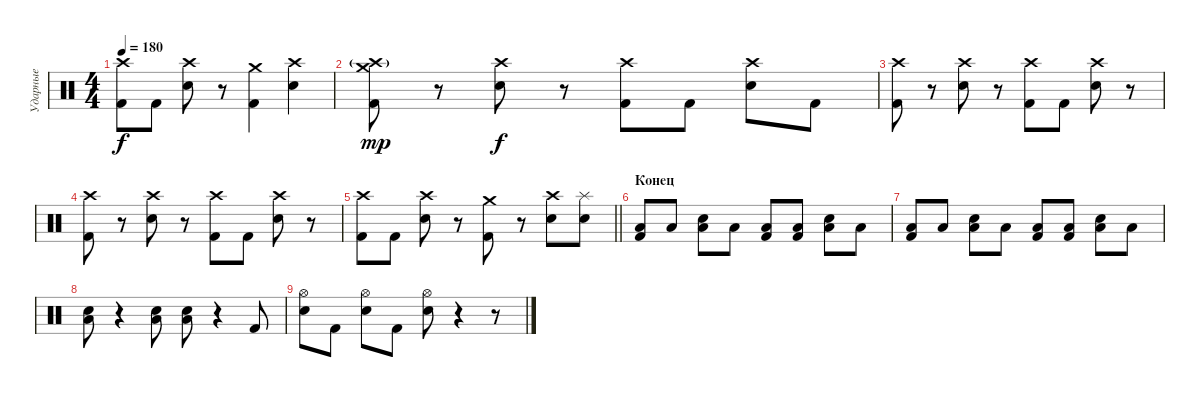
\track ("Ударные" "Ударные") {instrument percussion}
\staff {score}
\articulation defaults
\ts (4 4)
\tempo 180
\clef neutral
\ks c
("Crash high (hit)" "Kick (hit) 2").8{dy f} "Kick (hit) 2".8 ("Crash high (hit)" "Snare (hit) 2").8 r.8 ("Crash medium (hit)" "Kick (hit) 2").4 ("Crash high (hit)" "Snare (hit) 2").4 |
("Crash medium (hit)" "Crash high (hit)"{g} "Kick (hit) 2").8{dy mp} r.8 ("Crash high (hit)" "Snare (hit) 2").8{dy f} r.8 ("Crash high (hit)" "Kick (hit) 2").8 "Kick (hit) 2".8 ("Crash high (hit)" "Snare (hit) 2").8 "Kick (hit) 2".8 |
("Crash high (hit)" "Kick (hit) 2").8 r.8 ("Crash high (hit)" "Snare (hit) 2").8 r.8 ("Crash high (hit)" "Kick (hit) 2").8 "Kick (hit) 2".8 ("Crash high (hit)" "Snare (hit) 2").8 r.8 |
("Crash high (hit)" "Kick (hit) 2").8 r.8 ("Crash high (hit)" "Snare (hit) 2").8 r.8 ("Crash high (hit)" "Kick (hit) 2").8 "Kick (hit) 2".8 ("Crash high (hit)" "Snare (hit) 2").8 r.8 |
\barLineRight lightlight
("Crash high (hit)" "Kick (hit) 2").8 "Kick (hit) 2".8 ("Crash high (hit)" "Snare (hit) 2").8 r.8 ("Crash medium (hit)" "Kick (hit) 2").8 r.8 ("Crash high (hit)" "Snare (hit) 2").8 ("Splash (hit)" "Snare (hit) 2").8 |
\section ("" "Конец")
("Low Floor Tom (hit)" "Kick (hit) 2").8 "Low Floor Tom (hit)".8 ("Low Floor Tom (hit)" "Snare (hit) 2").8 "Low Floor Tom (hit)".8 ("Low Floor Tom (hit)" "Kick (hit) 2").8 ("Low Floor Tom (hit)" "Kick (hit) 2").8 ("Low Floor Tom (hit)" "Snare (hit) 2").8 "Low Floor Tom (hit)".8 |
("Low Floor Tom (hit)" "Kick (hit) 2").8 "Low Floor Tom (hit)".8 ("Low Floor Tom (hit)" "Snare (hit) 2").8 "Low Floor Tom (hit)".8 ("Low Floor Tom (hit)" "Kick (hit) 2").8 ("Low Floor Tom (hit)" "Kick (hit) 2").8 ("Low Floor Tom (hit)" "Snare (hit) 2").8 "Low Floor Tom (hit)".8 |
("Low Floor Tom (hit)" "Snare (hit) 2").8 r.4 ("Low Floor Tom (hit)" "Snare (hit) 2").8 ("Low Floor Tom (hit)" "Snare (hit) 2").8 r.4 "Kick (hit) 2".8 |
("Hi-Hat (open)" "Snare (hit) 2").8 "Kick (hit) 2".8 ("Hi-Hat (open)" "Snare (hit) 2").8 "Kick (hit) 2".8 ("Hi-Hat (open)" "Snare (hit) 2").8 r.4 r.8
